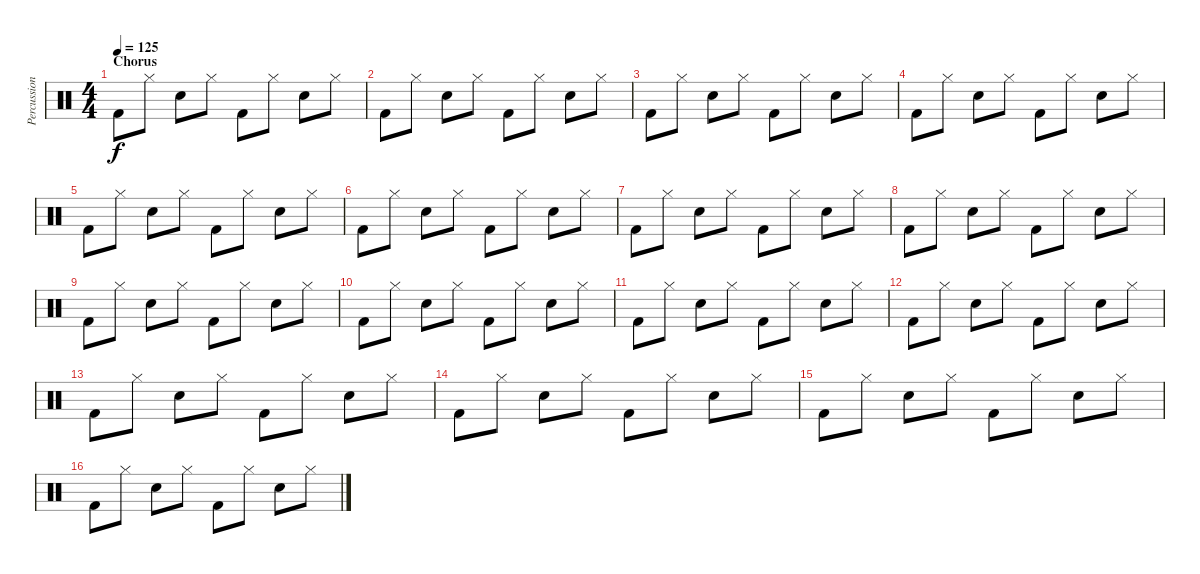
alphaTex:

\track ("Percussion" "Percussion") {instrument percussion}
\staff {score}
\articulation defaults
\ts (4 4)
\section ("" "Chorus")
\tempo 125
\clef neutral
\ks c "Kick (hit) 2".8{dy f} "Hi-Hat (closed)".8 "Electric Snare (hit)".8 "Hi-Hat (closed)".8 "Kick (hit) 2".8 "Hi-Hat (closed)".8 "Electric Snare (hit)".8 "Hi-Hat (closed)".8
|
"Kick (hit) 2".8 "Hi-Hat (closed)".8 "Electric Snare (hit)".8 "Hi-Hat (closed)".8 "Kick (hit) 2".8 "Hi-Hat (closed)".8 "Electric Snare (hit)".8 "Hi-Hat (closed)".8 |
"Kick (hit) 2".8 "Hi-Hat (closed)".8 "Electric Snare (hit)".8 "Hi-Hat (closed)".8 "Kick (hit) 2".8 "Hi-Hat (closed)".8 "Electric Snare (hit)".8 "Hi-Hat (closed)".8 |
"Kick (hit) 2".8 "Hi-Hat (closed)".8 "Electric Snare (hit)".8 "Hi-Hat (closed)".8 "Kick (hit) 2".8 "Hi-Hat (closed)".8 "Electric Snare (hit)".8 "Hi-Hat (closed)".8 |
"Kick (hit) 2".8 "Hi-Hat (closed)".8 "Electric Snare (hit)".8 "Hi-Hat (closed)".8 "Kick (hit) 2".8 "Hi-Hat (closed)".8 "Electric Snare (hit)".8 "Hi-Hat (closed)".8 |
"Kick (hit) 2".8 "Hi-Hat (closed)".8 "Electric Snare (hit)".8 "Hi-Hat (closed)".8 "Kick (hit) 2".8 "Hi-Hat (closed)".8 "Electric Snare (hit)".8 "Hi-Hat (closed)".8 |
"Kick (hit) 2".8 "Hi-Hat (closed)".8 "Electric Snare (hit)".8 "Hi-Hat (closed)".8 "Kick (hit) 2".8 "Hi-Hat (closed)".8 "Electric Snare (hit)".8 "Hi-Hat (closed)".8 |
"Kick (hit) 2".8 "Hi-Hat (closed)".8 "Electric Snare (hit)".8 "Hi-Hat (closed)".8 "Kick (hit) 2".8 "Hi-Hat (closed)".8 "Electric Snare (hit)".8 "Hi-Hat (closed)".8 |
"Kick (hit) 2".8 "Hi-Hat (closed)".8 "Electric Snare (hit)".8 "Hi-Hat (closed)".8 "Kick (hit) 2".8 "Hi-Hat (closed)".8 "Electric Snare (hit)".8 "Hi-Hat (closed)".8 |
"Kick (hit) 2".8 "Hi-Hat (closed)".8 "Electric Snare (hit)".8 "Hi-Hat (closed)".8 "Kick (hit) 2".8 "Hi-Hat (closed)".8 "Electric Snare (hit)".8 "Hi-Hat (closed)".8 |
"Kick (hit) 2".8 "Hi-Hat (closed)".8 "Electric Snare (hit)".8 "Hi-Hat (closed)".8 "Kick (hit) 2".8 "Hi-Hat (closed)".8 "Electric Snare (hit)".8 "Hi-Hat (closed)".8 |
"Kick (hit) 2".8 "Hi-Hat (closed)".8 "Electric Snare (hit)".8 "Hi-Hat (closed)".8 "Kick (hit) 2".8 "Hi-Hat (closed)".8 "Electric Snare (hit)".8 "Hi-Hat (closed)".8 |
"Kick (hit) 2".8 "Hi-Hat (closed)".8 "Electric Snare (hit)".8 "Hi-Hat (closed)".8 "Kick (hit) 2".8 "Hi-Hat (closed)".8 "Electric Snare (hit)".8 "Hi-Hat (closed)".8 |
"Kick (hit) 2".8 "Hi-Hat (closed)".8 "Electric Snare (hit)".8 "Hi-Hat (closed)".8 "Kick (hit) 2".8 "Hi-Hat (closed)".8 "Electric Snare (hit)".8 "Hi-Hat (closed)".8 |
"Kick (hit) 2".8 "Hi-Hat (closed)".8 "Electric Snare (hit)".8 "Hi-Hat (closed)".8 "Kick (hit) 2".8 "Hi-Hat (closed)".8 "Electric Snare (hit)".8 "Hi-Hat (closed)".8 |
"Kick (hit) 2".8 "Hi-Hat (closed)".8 "Electric Snare (hit)".8 "Hi-Hat (closed)".8 "Kick (hit) 2".8 "Hi-Hat (closed)".8 "Electric Snare (hit)".8 "Hi-Hat (closed)".8
